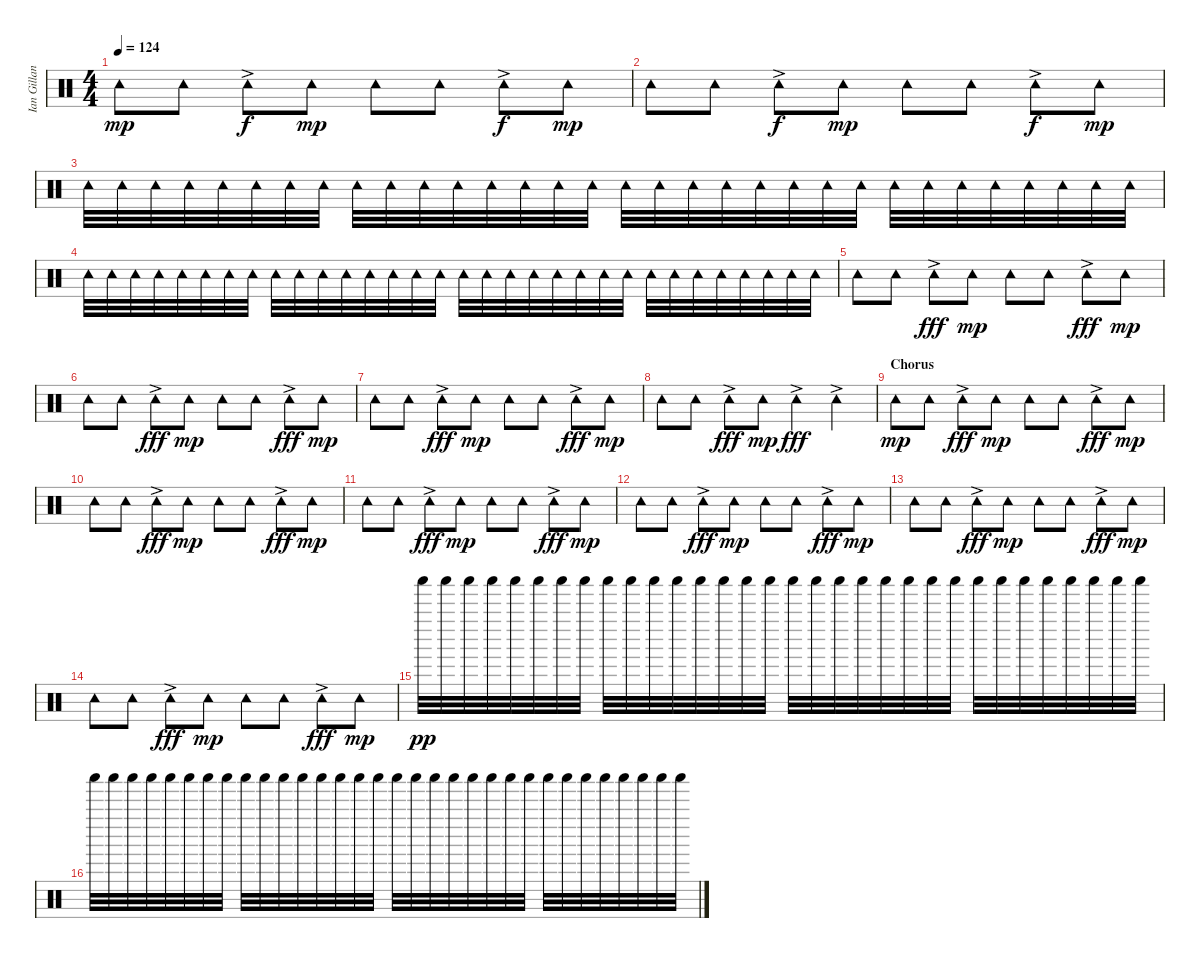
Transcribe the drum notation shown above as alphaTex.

\track ("Ian Gillan (percussions)" "Ian Gillan") {instrument percussion}
\staff {score}
\articulation defaults
\ts (4 4)
\tempo 124
\clef neutral
\ks c "Tambourine (hit)".8{dy mp} "Tambourine (hit)".8 "Tambourine (hit)"{ac}.8{dy f} "Tambourine (hit)".8{dy mp} "Tambourine (hit)".8 "Tambourine (hit)".8 "Tambourine (hit)"{ac}.8{dy f} "Tambourine (hit)".8{dy mp}
|
"Tambourine (hit)".8 "Tambourine (hit)".8 "Tambourine (hit)"{ac}.8{dy f} "Tambourine (hit)".8{dy mp} "Tambourine (hit)".8 "Tambourine (hit)".8 "Tambourine (hit)"{ac}.8{dy f} "Tambourine (hit)".8{dy mp} |
"Tambourine (hit)".32 "Tambourine (hit)".32 "Tambourine (hit)".32 "Tambourine (hit)".32 "Tambourine (hit)".32 "Tambourine (hit)".32 "Tambourine (hit)".32 "Tambourine (hit)".32 "Tambourine (hit)".32 "Tambourine (hit)".32 "Tambourine (hit)".32 "Tambourine (hit)".32 "Tambourine (hit)".32 "Tambourine (hit)".32 "Tambourine (hit)".32 "Tambourine (hit)".32 "Tambourine (hit)".32 "Tambourine (hit)".32 "Tambourine (hit)".32 "Tambourine (hit)".32 "Tambourine (hit)".32 "Tambourine (hit)".32 "Tambourine (hit)".32 "Tambourine (hit)".32 "Tambourine (hit)".32 "Tambourine (hit)".32 "Tambourine (hit)".32 "Tambourine (hit)".32 "Tambourine (hit)".32 "Tambourine (hit)".32 "Tambourine (hit)".32 "Tambourine (hit)".32 |
"Tambourine (hit)".32 "Tambourine (hit)".32 "Tambourine (hit)".32 "Tambourine (hit)".32 "Tambourine (hit)".32 "Tambourine (hit)".32 "Tambourine (hit)".32 "Tambourine (hit)".32 "Tambourine (hit)".32 "Tambourine (hit)".32 "Tambourine (hit)".32 "Tambourine (hit)".32 "Tambourine (hit)".32 "Tambourine (hit)".32 "Tambourine (hit)".32 "Tambourine (hit)".32 "Tambourine (hit)".32 "Tambourine (hit)".32 "Tambourine (hit)".32 "Tambourine (hit)".32 "Tambourine (hit)".32 "Tambourine (hit)".32 "Tambourine (hit)".32 "Tambourine (hit)".32 "Tambourine (hit)".32 "Tambourine (hit)".32 "Tambourine (hit)".32 "Tambourine (hit)".32 "Tambourine (hit)".32 "Tambourine (hit)".32 "Tambourine (hit)".32 "Tambourine (hit)".32 |
"Tambourine (hit)".8 "Tambourine (hit)".8 "Tambourine (hit)"{ac}.8{dy fff} "Tambourine (hit)".8{dy mp} "Tambourine (hit)".8 "Tambourine (hit)".8 "Tambourine (hit)"{ac}.8{dy fff} "Tambourine (hit)".8{dy mp} |
"Tambourine (hit)".8 "Tambourine (hit)".8 "Tambourine (hit)"{ac}.8{dy fff} "Tambourine (hit)".8{dy mp} "Tambourine (hit)".8 "Tambourine (hit)".8 "Tambourine (hit)"{ac}.8{dy fff} "Tambourine (hit)".8{dy mp} |
"Tambourine (hit)".8 "Tambourine (hit)".8 "Tambourine (hit)"{ac}.8{dy fff} "Tambourine (hit)".8{dy mp} "Tambourine (hit)".8 "Tambourine (hit)".8 "Tambourine (hit)"{ac}.8{dy fff} "Tambourine (hit)".8{dy mp} |
"Tambourine (hit)".8 "Tambourine (hit)".8 "Tambourine (hit)"{ac}.8{dy fff} "Tambourine (hit)".8{dy mp} "Tambourine (hit)"{ac}.4{dy fff} "Tambourine (hit)"{ac}.4 |
\section ("" "Chorus")
"Tambourine (hit)".8{dy mp} "Tambourine (hit)".8 "Tambourine (hit)"{ac}.8{dy fff} "Tambourine (hit)".8{dy mp} "Tambourine (hit)".8 "Tambourine (hit)".8 "Tambourine (hit)"{ac}.8{dy fff} "Tambourine (hit)".8{dy mp} |
"Tambourine (hit)".8 "Tambourine (hit)".8 "Tambourine (hit)"{ac}.8{dy fff} "Tambourine (hit)".8{dy mp} "Tambourine (hit)".8 "Tambourine (hit)".8 "Tambourine (hit)"{ac}.8{dy fff} "Tambourine (hit)".8{dy mp} |
"Tambourine (hit)".8 "Tambourine (hit)".8 "Tambourine (hit)"{ac}.8{dy fff} "Tambourine (hit)".8{dy mp} "Tambourine (hit)".8 "Tambourine (hit)".8 "Tambourine (hit)"{ac}.8{dy fff} "Tambourine (hit)".8{dy mp} |
"Tambourine (hit)".8 "Tambourine (hit)".8 "Tambourine (hit)"{ac}.8{dy fff} "Tambourine (hit)".8{dy mp} "Tambourine (hit)".8 "Tambourine (hit)".8 "Tambourine (hit)"{ac}.8{dy fff} "Tambourine (hit)".8{dy mp} |
"Tambourine (hit)".8 "Tambourine (hit)".8 "Tambourine (hit)"{ac}.8{dy fff} "Tambourine (hit)".8{dy mp} "Tambourine (hit)".8 "Tambourine (hit)".8 "Tambourine (hit)"{ac}.8{dy fff} "Tambourine (hit)".8{dy mp} |
"Tambourine (hit)".8 "Tambourine (hit)".8 "Tambourine (hit)"{ac}.8{dy fff} "Tambourine (hit)".8{dy mp} "Tambourine (hit)".8 "Tambourine (hit)".8 "Tambourine (hit)"{ac}.8{dy fff} "Tambourine (hit)".8{dy mp} |
"Shaker (hit)".32{dy pp} "Shaker (hit)".32 "Shaker (hit)".32 "Shaker (hit)".32 "Shaker (hit)".32 "Shaker (hit)".32 "Shaker (hit)".32 "Shaker (hit)".32 "Shaker (hit)".32 "Shaker (hit)".32 "Shaker (hit)".32 "Shaker (hit)".32 "Shaker (hit)".32 "Shaker (hit)".32 "Shaker (hit)".32 "Shaker (hit)".32 "Shaker (hit)".32 "Shaker (hit)".32 "Shaker (hit)".32 "Shaker (hit)".32 "Shaker (hit)".32 "Shaker (hit)".32 "Shaker (hit)".32 "Shaker (hit)".32 "Shaker (hit)".32 "Shaker (hit)".32 "Shaker (hit)".32 "Shaker (hit)".32 "Shaker (hit)".32 "Shaker (hit)".32 "Shaker (hit)".32 "Shaker (hit)".32 |
"Shaker (hit)".32 "Shaker (hit)".32 "Shaker (hit)".32 "Shaker (hit)".32 "Shaker (hit)".32 "Shaker (hit)".32 "Shaker (hit)".32 "Shaker (hit)".32 "Shaker (hit)".32 "Shaker (hit)".32 "Shaker (hit)".32 "Shaker (hit)".32 "Shaker (hit)".32 "Shaker (hit)".32 "Shaker (hit)".32 "Shaker (hit)".32 "Shaker (hit)".32 "Shaker (hit)".32 "Shaker (hit)".32 "Shaker (hit)".32 "Shaker (hit)".32 "Shaker (hit)".32 "Shaker (hit)".32 "Shaker (hit)".32 "Shaker (hit)".32 "Shaker (hit)".32 "Shaker (hit)".32 "Shaker (hit)".32 "Shaker (hit)".32 "Shaker (hit)".32 "Shaker (hit)".32 "Shaker (hit)".32
